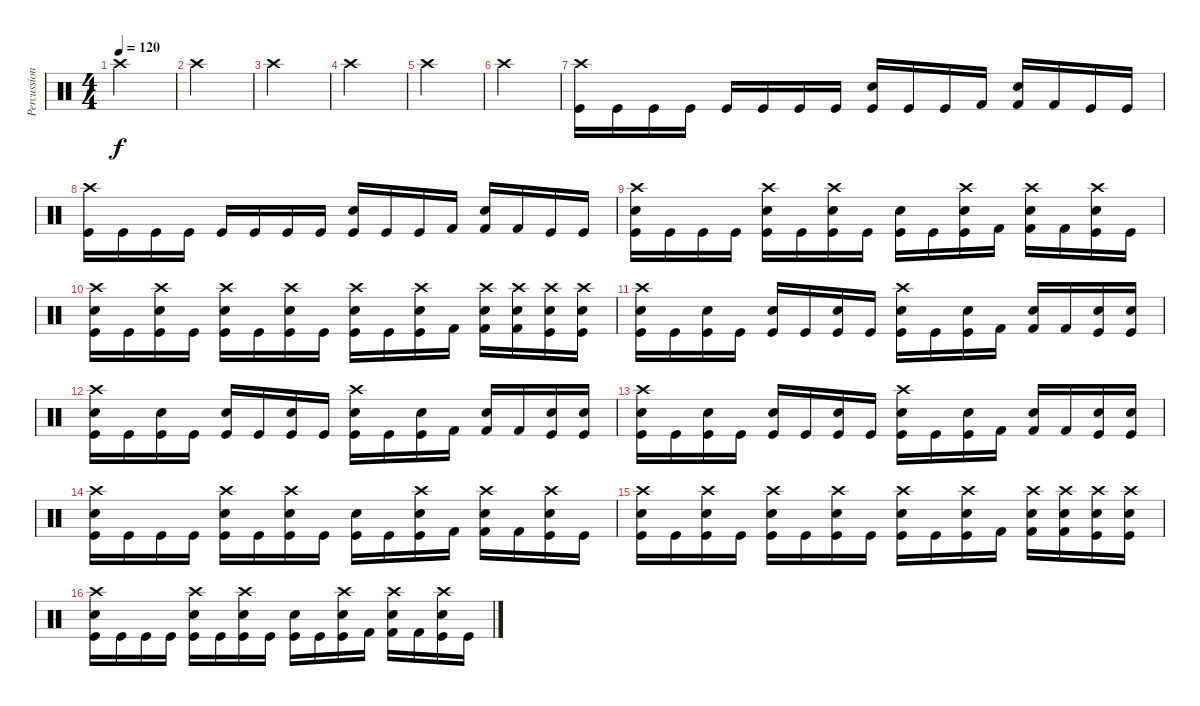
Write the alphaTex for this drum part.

\track ("Percussion" "Percussion") {instrument percussion}
\staff {score}
\articulation defaults
\ts (4 4)
\tempo 120
\clef neutral
\ks c "Crash high (hit)".4{dy f}
|
"Crash high (hit)".4 |
"Crash high (hit)".4 |
"Crash high (hit)".4 |
"Crash high (hit)".4 |
"Crash high (hit)".4 |
("Crash high (hit)" "Kick (hit)").16 "Kick (hit)".16 "Kick (hit)".16 "Kick (hit)".16 "Kick (hit)".16 "Kick (hit)".16 "Kick (hit)".16 "Kick (hit)".16 ("Snare (hit) 2" "Kick (hit)").16 "Kick (hit)".16 "Kick (hit)".16 "Kick (hit) 2".16 ("Snare (hit) 2" "Kick (hit) 2").16 "Kick (hit) 2".16 "Kick (hit)".16 "Kick (hit)".16 |
("Crash high (hit)" "Kick (hit)").16 "Kick (hit)".16 "Kick (hit)".16 "Kick (hit)".16 "Kick (hit)".16 "Kick (hit)".16 "Kick (hit)".16 "Kick (hit)".16 ("Snare (hit) 2" "Kick (hit)").16 "Kick (hit)".16 "Kick (hit)".16 "Kick (hit) 2".16 ("Snare (hit) 2" "Kick (hit) 2").16 "Kick (hit) 2".16 "Kick (hit)".16 "Kick (hit)".16 |
("Snare (hit) 2" "Kick (hit)" "Crash high (hit)").16 "Kick (hit)".16 "Kick (hit)".16 "Kick (hit)".16 ("Snare (hit) 2" "Kick (hit)" "Crash high (hit)").16 "Kick (hit)".16 ("Snare (hit) 2" "Kick (hit)" "Crash high (hit)").16 "Kick (hit)".16 ("Snare (hit) 2" "Kick (hit)").16 "Kick (hit)".16 ("Snare (hit) 2" "Kick (hit)" "Crash high (hit)").16 "Kick (hit) 2".16 ("Snare (hit) 2" "Kick (hit) 2" "Crash high (hit)").16 "Kick (hit) 2".16 ("Snare (hit) 2" "Kick (hit)" "Crash high (hit)").16 "Kick (hit)".16 |
("Snare (hit) 2" "Kick (hit)" "Crash high (hit)").16 "Kick (hit)".16 ("Snare (hit) 2" "Kick (hit)" "Crash high (hit)").16 "Kick (hit)".16 ("Snare (hit) 2" "Kick (hit)" "Crash high (hit)").16 "Kick (hit)".16 ("Snare (hit) 2" "Kick (hit)" "Crash high (hit)").16 "Kick (hit)".16 ("Snare (hit) 2" "Kick (hit)" "Crash high (hit)").16 "Kick (hit)".16 ("Snare (hit) 2" "Kick (hit)" "Crash high (hit)").16 "Kick (hit) 2".16 ("Snare (hit) 2" "Kick (hit) 2" "Crash high (hit)").16 ("Snare (hit) 2" "Kick (hit) 2" "Crash high (hit)").16 ("Snare (hit) 2" "Kick (hit)" "Crash high (hit)").16 ("Snare (hit) 2" "Kick (hit)" "Crash high (hit)").16 |
("Snare (hit) 2" "Kick (hit)" "Crash high (hit)").16 "Kick (hit)".16 ("Snare (hit) 2" "Kick (hit)").16 "Kick (hit)".16 ("Snare (hit) 2" "Kick (hit)").16 "Kick (hit)".16 ("Snare (hit) 2" "Kick (hit)").16 "Kick (hit)".16 ("Snare (hit) 2" "Kick (hit)" "Crash high (hit)").16 "Kick (hit)".16 ("Snare (hit) 2" "Kick (hit)").16 "Kick (hit) 2".16 ("Snare (hit) 2" "Kick (hit) 2").16 "Kick (hit) 2".16 ("Snare (hit) 2" "Kick (hit)").16 ("Snare (hit) 2" "Kick (hit)").16 |
("Snare (hit) 2" "Kick (hit)" "Crash high (hit)").16 "Kick (hit)".16 ("Snare (hit) 2" "Kick (hit)").16 "Kick (hit)".16 ("Snare (hit) 2" "Kick (hit)").16 "Kick (hit)".16 ("Snare (hit) 2" "Kick (hit)").16 "Kick (hit)".16 ("Snare (hit) 2" "Kick (hit)" "Crash high (hit)").16 "Kick (hit)".16 ("Snare (hit) 2" "Kick (hit)").16 "Kick (hit) 2".16 ("Snare (hit) 2" "Kick (hit) 2").16 "Kick (hit) 2".16 ("Snare (hit) 2" "Kick (hit)").16 ("Snare (hit) 2" "Kick (hit)").16 |
("Snare (hit) 2" "Kick (hit)" "Crash high (hit)").16 "Kick (hit)".16 ("Snare (hit) 2" "Kick (hit)").16 "Kick (hit)".16 ("Snare (hit) 2" "Kick (hit)").16 "Kick (hit)".16 ("Snare (hit) 2" "Kick (hit)").16 "Kick (hit)".16 ("Snare (hit) 2" "Kick (hit)" "Crash high (hit)").16 "Kick (hit)".16 ("Snare (hit) 2" "Kick (hit)").16 "Kick (hit) 2".16 ("Snare (hit) 2" "Kick (hit) 2").16 "Kick (hit) 2".16 ("Snare (hit) 2" "Kick (hit)").16 ("Snare (hit) 2" "Kick (hit)").16 |
("Snare (hit) 2" "Kick (hit)" "Crash high (hit)").16 "Kick (hit)".16 "Kick (hit)".16 "Kick (hit)".16 ("Snare (hit) 2" "Kick (hit)" "Crash high (hit)").16 "Kick (hit)".16 ("Snare (hit) 2" "Kick (hit)" "Crash high (hit)").16 "Kick (hit)".16 ("Snare (hit) 2" "Kick (hit)").16 "Kick (hit)".16 ("Snare (hit) 2" "Kick (hit)" "Crash high (hit)").16 "Kick (hit) 2".16 ("Snare (hit) 2" "Kick (hit) 2" "Crash high (hit)").16 "Kick (hit) 2".16 ("Snare (hit) 2" "Kick (hit)" "Crash high (hit)").16 "Kick (hit)".16 |
("Snare (hit) 2" "Kick (hit)" "Crash high (hit)").16 "Kick (hit)".16 ("Snare (hit) 2" "Kick (hit)" "Crash high (hit)").16 "Kick (hit)".16 ("Snare (hit) 2" "Kick (hit)" "Crash high (hit)").16 "Kick (hit)".16 ("Snare (hit) 2" "Kick (hit)" "Crash high (hit)").16 "Kick (hit)".16 ("Snare (hit) 2" "Kick (hit)" "Crash high (hit)").16 "Kick (hit)".16 ("Snare (hit) 2" "Kick (hit)" "Crash high (hit)").16 "Kick (hit) 2".16 ("Snare (hit) 2" "Kick (hit) 2" "Crash high (hit)").16 ("Snare (hit) 2" "Kick (hit) 2" "Crash high (hit)").16 ("Snare (hit) 2" "Kick (hit)" "Crash high (hit)").16 ("Snare (hit) 2" "Kick (hit)" "Crash high (hit)").16 |
("Snare (hit) 2" "Kick (hit)" "Crash high (hit)").16 "Kick (hit)".16 "Kick (hit)".16 "Kick (hit)".16 ("Snare (hit) 2" "Kick (hit)" "Crash high (hit)").16 "Kick (hit)".16 ("Snare (hit) 2" "Kick (hit)" "Crash high (hit)").16 "Kick (hit)".16 ("Snare (hit) 2" "Kick (hit)").16 "Kick (hit)".16 ("Snare (hit) 2" "Kick (hit)" "Crash high (hit)").16 "Kick (hit) 2".16 ("Snare (hit) 2" "Kick (hit) 2" "Crash high (hit)").16 "Kick (hit) 2".16 ("Snare (hit) 2" "Kick (hit)" "Crash high (hit)").16 "Kick (hit)".16
